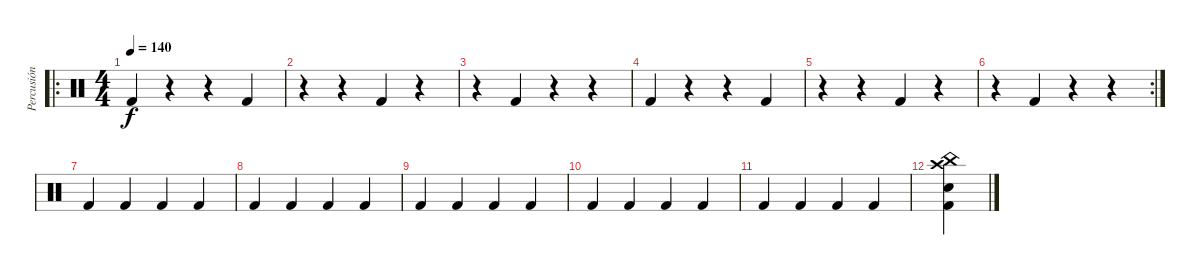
\track ("Percusión" "Percusión") {instrument percussion}
\staff {score}
\articulation defaults
\ro
\ts (4 4)
\tempo 140
\clef neutral
\ks c "Kick (hit) 2".4{dy f}
r.4 r.4 "Kick (hit) 2".4 |
r.4 r.4 "Kick (hit) 2".4 r.4 |
r.4 "Kick (hit) 2".4 r.4 r.4 |
"Kick (hit) 2".4 r.4 r.4 "Kick (hit) 2".4 |
r.4 r.4 "Kick (hit) 2".4 r.4 |
\rc 2
r.4 "Kick (hit) 2".4 r.4 r.4 |
"Kick (hit) 2".4 "Kick (hit) 2".4 "Kick (hit) 2".4 "Kick (hit) 2".4 |
"Kick (hit) 2".4 "Kick (hit) 2".4 "Kick (hit) 2".4 "Kick (hit) 2".4 |
"Kick (hit) 2".4 "Kick (hit) 2".4 "Kick (hit) 2".4 "Kick (hit) 2".4 |
"Kick (hit) 2".4 "Kick (hit) 2".4 "Kick (hit) 2".4 "Kick (hit) 2".4 |
"Kick (hit) 2".4 "Kick (hit) 2".4 "Kick (hit) 2".4 "Kick (hit) 2".4 |
("Snare (hit) 2" "China (hit)" "Kick (hit) 2" "Crash high (hit)").4
